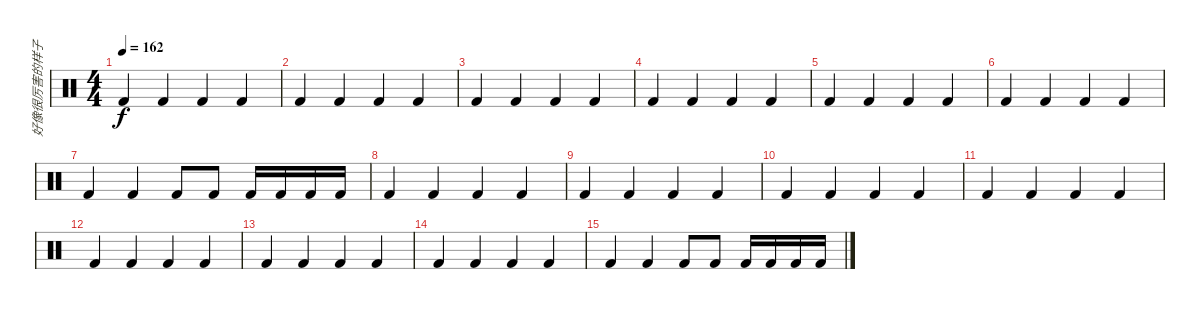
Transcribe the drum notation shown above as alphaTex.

\track ("好像很厉害的样子" "好像很厉害的样子") {instrument percussion}
\staff {score}
\articulation defaults
\ts (4 4)
\tempo 162
\clef neutral
\ks c "Kick (hit) 2".4{dy f} "Kick (hit) 2".4 "Kick (hit) 2".4 "Kick (hit) 2".4
|
"Kick (hit) 2".4 "Kick (hit) 2".4 "Kick (hit) 2".4 "Kick (hit) 2".4 |
"Kick (hit) 2".4 "Kick (hit) 2".4 "Kick (hit) 2".4 "Kick (hit) 2".4 |
"Kick (hit) 2".4 "Kick (hit) 2".4 "Kick (hit) 2".4 "Kick (hit) 2".4 |
"Kick (hit) 2".4 "Kick (hit) 2".4 "Kick (hit) 2".4 "Kick (hit) 2".4 |
"Kick (hit) 2".4 "Kick (hit) 2".4 "Kick (hit) 2".4 "Kick (hit) 2".4 |
"Kick (hit) 2".4 "Kick (hit) 2".4 "Kick (hit) 2".8 "Kick (hit) 2".8 "Kick (hit) 2".16 "Kick (hit) 2".16 "Kick (hit) 2".16 "Kick (hit) 2".16 |
"Kick (hit) 2".4 "Kick (hit) 2".4 "Kick (hit) 2".4 "Kick (hit) 2".4 |
"Kick (hit) 2".4 "Kick (hit) 2".4 "Kick (hit) 2".4 "Kick (hit) 2".4 |
"Kick (hit) 2".4 "Kick (hit) 2".4 "Kick (hit) 2".4 "Kick (hit) 2".4 |
"Kick (hit) 2".4 "Kick (hit) 2".4 "Kick (hit) 2".4 "Kick (hit) 2".4 |
"Kick (hit) 2".4 "Kick (hit) 2".4 "Kick (hit) 2".4 "Kick (hit) 2".4 |
"Kick (hit) 2".4 "Kick (hit) 2".4 "Kick (hit) 2".4 "Kick (hit) 2".4 |
"Kick (hit) 2".4 "Kick (hit) 2".4 "Kick (hit) 2".4 "Kick (hit) 2".4 |
"Kick (hit) 2".4 "Kick (hit) 2".4 "Kick (hit) 2".8 "Kick (hit) 2".8 "Kick (hit) 2".16 "Kick (hit) 2".16 "Kick (hit) 2".16 "Kick (hit) 2".16
